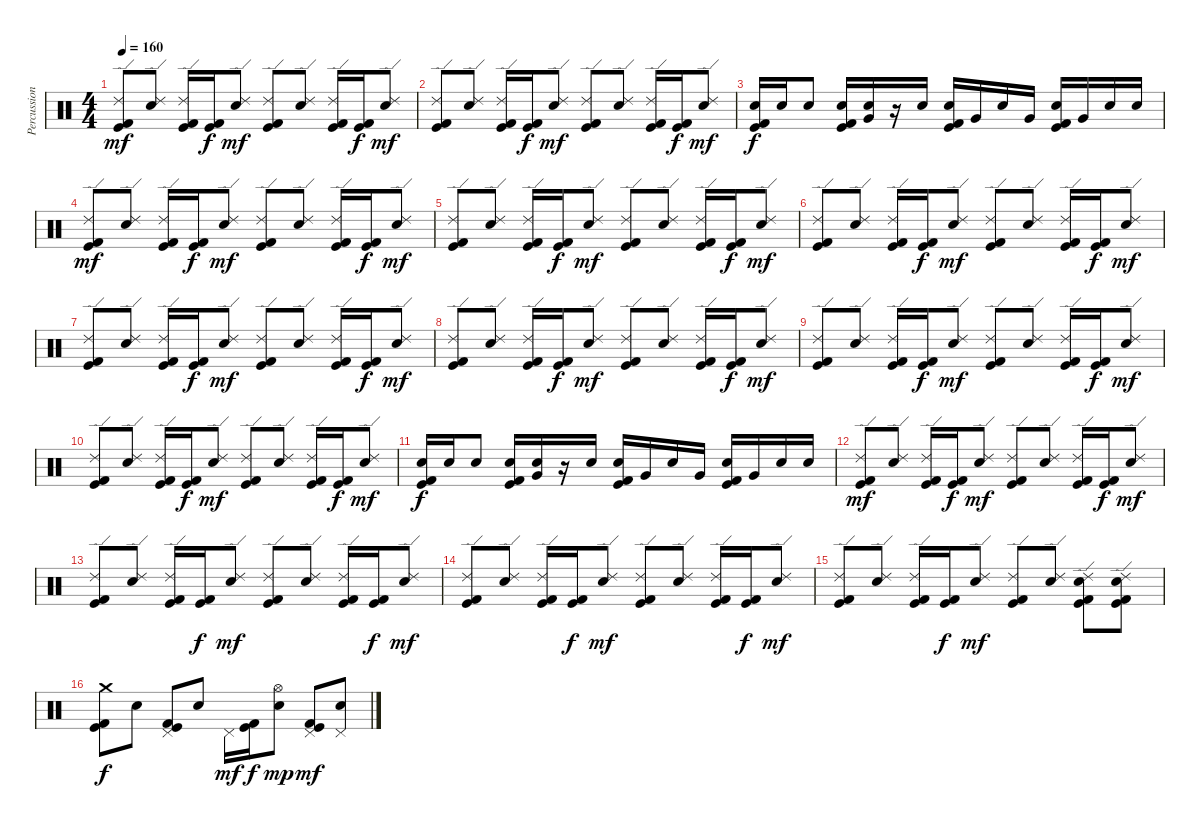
\track ("Percussions" "Percussion") {instrument percussion}
\staff {score}
\articulation defaults
\ts (4 4)
\tempo 160
\clef neutral
\ks c
("Ride (edge) 2" "Kick (hit)" "Kick (hit) 2").8{dy mf} ("Ride (edge) 2" "Electric Snare (hit)").8 ("Ride (edge) 2" "Kick (hit)" "Kick (hit) 2").16 ("Kick (hit)" "Kick (hit) 2").16{dy f} ("Ride (edge) 2" "Electric Snare (hit)").8{dy mf} ("Ride (edge) 2" "Kick (hit)" "Kick (hit) 2").8 ("Ride (edge) 2" "Electric Snare (hit)").8 ("Ride (edge) 2" "Kick (hit)" "Kick (hit) 2").16 ("Kick (hit)" "Kick (hit) 2").16{dy f} ("Ride (edge) 2" "Electric Snare (hit)").8{dy mf} |
("Ride (edge) 2" "Kick (hit)" "Kick (hit) 2").8 ("Ride (edge) 2" "Electric Snare (hit)").8 ("Ride (edge) 2" "Kick (hit)" "Kick (hit) 2").16 ("Kick (hit)" "Kick (hit) 2").16{dy f} ("Ride (edge) 2" "Electric Snare (hit)").8{dy mf} ("Ride (edge) 2" "Kick (hit)" "Kick (hit) 2").8 ("Ride (edge) 2" "Electric Snare (hit)").8 ("Ride (edge) 2" "Kick (hit)" "Kick (hit) 2").16 ("Kick (hit)" "Kick (hit) 2").16{dy f} ("Ride (edge) 2" "Electric Snare (hit)").8{dy mf} |
("Electric Snare (hit)" "Kick (hit)" "Kick (hit) 2").16{dy f} "Electric Snare (hit)".16 "Electric Snare (hit)".8 ("Electric Snare (hit)" "Kick (hit)" "Kick (hit) 2").16 ("Electric Snare (hit)" "Very Low Tom (hit)").16 r.16 "Electric Snare (hit)".16 ("Electric Snare (hit)" "Kick (hit)" "Kick (hit) 2").16 "Very Low Tom (hit)".16 "Electric Snare (hit)".16 "Very Low Tom (hit)".16 ("Electric Snare (hit)" "Kick (hit)" "Kick (hit) 2").16 "Very Low Tom (hit)".16 "Electric Snare (hit)".16 "Electric Snare (hit)".16 |
("Ride (edge) 2" "Kick (hit)" "Kick (hit) 2").8{dy mf} ("Ride (edge) 2" "Electric Snare (hit)").8 ("Ride (edge) 2" "Kick (hit)" "Kick (hit) 2").16 ("Kick (hit)" "Kick (hit) 2").16{dy f} ("Ride (edge) 2" "Electric Snare (hit)").8{dy mf} ("Ride (edge) 2" "Kick (hit)" "Kick (hit) 2").8 ("Ride (edge) 2" "Electric Snare (hit)").8 ("Ride (edge) 2" "Kick (hit)" "Kick (hit) 2").16 ("Kick (hit)" "Kick (hit) 2").16{dy f} ("Ride (edge) 2" "Electric Snare (hit)").8{dy mf} |
("Ride (edge) 2" "Kick (hit)" "Kick (hit) 2").8 ("Ride (edge) 2" "Electric Snare (hit)").8 ("Ride (edge) 2" "Kick (hit)" "Kick (hit) 2").16 ("Kick (hit)" "Kick (hit) 2").16{dy f} ("Ride (edge) 2" "Electric Snare (hit)").8{dy mf} ("Ride (edge) 2" "Kick (hit)" "Kick (hit) 2").8 ("Ride (edge) 2" "Electric Snare (hit)").8 ("Ride (edge) 2" "Kick (hit)" "Kick (hit) 2").16 ("Kick (hit)" "Kick (hit) 2").16{dy f} ("Ride (edge) 2" "Electric Snare (hit)").8{dy mf} |
("Ride (edge) 2" "Kick (hit)" "Kick (hit) 2").8 ("Ride (edge) 2" "Electric Snare (hit)").8 ("Ride (edge) 2" "Kick (hit)" "Kick (hit) 2").16 ("Kick (hit)" "Kick (hit) 2").16{dy f} ("Ride (edge) 2" "Electric Snare (hit)").8{dy mf} ("Ride (edge) 2" "Kick (hit)" "Kick (hit) 2").8 ("Ride (edge) 2" "Electric Snare (hit)").8 ("Ride (edge) 2" "Kick (hit)" "Kick (hit) 2").16 ("Kick (hit)" "Kick (hit) 2").16{dy f} ("Ride (edge) 2" "Electric Snare (hit)").8{dy mf} |
("Ride (edge) 2" "Kick (hit)" "Kick (hit) 2").8 ("Ride (edge) 2" "Electric Snare (hit)").8 ("Ride (edge) 2" "Kick (hit)" "Kick (hit) 2").16 ("Kick (hit)" "Kick (hit) 2").16{dy f} ("Ride (edge) 2" "Electric Snare (hit)").8{dy mf} ("Ride (edge) 2" "Kick (hit)" "Kick (hit) 2").8 ("Ride (edge) 2" "Electric Snare (hit)").8 ("Ride (edge) 2" "Kick (hit)" "Kick (hit) 2").16 ("Kick (hit)" "Kick (hit) 2").16{dy f} ("Ride (edge) 2" "Electric Snare (hit)").8{dy mf} |
("Ride (edge) 2" "Kick (hit)" "Kick (hit) 2").8 ("Ride (edge) 2" "Electric Snare (hit)").8 ("Ride (edge) 2" "Kick (hit)" "Kick (hit) 2").16 ("Kick (hit)" "Kick (hit) 2").16{dy f} ("Ride (edge) 2" "Electric Snare (hit)").8{dy mf} ("Ride (edge) 2" "Kick (hit)" "Kick (hit) 2").8 ("Ride (edge) 2" "Electric Snare (hit)").8 ("Ride (edge) 2" "Kick (hit)" "Kick (hit) 2").16 ("Kick (hit)" "Kick (hit) 2").16{dy f} ("Ride (edge) 2" "Electric Snare (hit)").8{dy mf} |
("Ride (edge) 2" "Kick (hit)" "Kick (hit) 2").8 ("Ride (edge) 2" "Electric Snare (hit)").8 ("Ride (edge) 2" "Kick (hit)" "Kick (hit) 2").16 ("Kick (hit)" "Kick (hit) 2").16{dy f} ("Ride (edge) 2" "Electric Snare (hit)").8{dy mf} ("Ride (edge) 2" "Kick (hit)" "Kick (hit) 2").8 ("Ride (edge) 2" "Electric Snare (hit)").8 ("Ride (edge) 2" "Kick (hit)" "Kick (hit) 2").16 ("Kick (hit)" "Kick (hit) 2").16{dy f} ("Ride (edge) 2" "Electric Snare (hit)").8{dy mf} |
("Ride (edge) 2" "Kick (hit)" "Kick (hit) 2").8 ("Ride (edge) 2" "Electric Snare (hit)").8 ("Ride (edge) 2" "Kick (hit)" "Kick (hit) 2").16 ("Kick (hit)" "Kick (hit) 2").16{dy f} ("Ride (edge) 2" "Electric Snare (hit)").8{dy mf} ("Ride (edge) 2" "Kick (hit)" "Kick (hit) 2").8 ("Ride (edge) 2" "Electric Snare (hit)").8 ("Ride (edge) 2" "Kick (hit)" "Kick (hit) 2").16 ("Kick (hit)" "Kick (hit) 2").16{dy f} ("Ride (edge) 2" "Electric Snare (hit)").8{dy mf} |
("Electric Snare (hit)" "Kick (hit)" "Kick (hit) 2").16{dy f} "Electric Snare (hit)".16 "Electric Snare (hit)".8 ("Electric Snare (hit)" "Kick (hit)" "Kick (hit) 2").16 ("Electric Snare (hit)" "Very Low Tom (hit)").16 r.16 "Electric Snare (hit)".16 ("Electric Snare (hit)" "Kick (hit)" "Kick (hit) 2").16 "Very Low Tom (hit)".16 "Electric Snare (hit)".16 "Very Low Tom (hit)".16 ("Electric Snare (hit)" "Kick (hit)" "Kick (hit) 2").16 "Very Low Tom (hit)".16 "Electric Snare (hit)".16 "Electric Snare (hit)".16 |
("Ride (edge) 2" "Kick (hit)" "Kick (hit) 2").8{dy mf} ("Ride (edge) 2" "Electric Snare (hit)").8 ("Ride (edge) 2" "Kick (hit)" "Kick (hit) 2").16 ("Kick (hit)" "Kick (hit) 2").16{dy f} ("Ride (edge) 2" "Electric Snare (hit)").8{dy mf} ("Ride (edge) 2" "Kick (hit)" "Kick (hit) 2").8 ("Ride (edge) 2" "Electric Snare (hit)").8 ("Ride (edge) 2" "Kick (hit)" "Kick (hit) 2").16 ("Kick (hit)" "Kick (hit) 2").16{dy f} ("Ride (edge) 2" "Electric Snare (hit)").8{dy mf} |
("Ride (edge) 2" "Kick (hit)" "Kick (hit) 2").8 ("Ride (edge) 2" "Electric Snare (hit)").8 ("Ride (edge) 2" "Kick (hit)" "Kick (hit) 2").16 ("Kick (hit)" "Kick (hit) 2").16{dy f} ("Ride (edge) 2" "Electric Snare (hit)").8{dy mf} ("Ride (edge) 2" "Kick (hit)" "Kick (hit) 2").8 ("Ride (edge) 2" "Electric Snare (hit)").8 ("Ride (edge) 2" "Kick (hit)" "Kick (hit) 2").16 ("Kick (hit)" "Kick (hit) 2").16{dy f} ("Ride (edge) 2" "Electric Snare (hit)").8{dy mf} |
("Ride (edge) 2" "Kick (hit)" "Kick (hit) 2").8 ("Ride (edge) 2" "Electric Snare (hit)").8 ("Ride (edge) 2" "Kick (hit)" "Kick (hit) 2").16 ("Kick (hit)" "Kick (hit) 2").16{dy f} ("Ride (edge) 2" "Electric Snare (hit)").8{dy mf} ("Ride (edge) 2" "Kick (hit)" "Kick (hit) 2").8 ("Ride (edge) 2" "Electric Snare (hit)").8 ("Ride (edge) 2" "Kick (hit)" "Kick (hit) 2").16 ("Kick (hit)" "Kick (hit) 2").16{dy f} ("Ride (edge) 2" "Electric Snare (hit)").8{dy mf} |
("Ride (edge) 2" "Kick (hit)" "Kick (hit) 2").8 ("Ride (edge) 2" "Electric Snare (hit)").8 ("Ride (edge) 2" "Kick (hit)" "Kick (hit) 2").16 ("Kick (hit)" "Kick (hit) 2").16{dy f} ("Ride (edge) 2" "Electric Snare (hit)").8{dy mf} ("Ride (edge) 2" "Kick (hit)" "Kick (hit) 2").8 ("Ride (edge) 2" "Electric Snare (hit)").8 ("Ride (edge) 2" "Electric Snare (hit)" "Kick (hit)" "Kick (hit) 2").8 ("Ride (edge) 2" "Electric Snare (hit)" "Kick (hit)" "Kick (hit) 2").8 |
("Crash medium (hit)" "Kick (hit)" "Kick (hit) 2").8{dy f} "Electric Snare (hit)".8 ("Pedal Hi-Hat (hit)" "Kick (hit)" "Kick (hit) 2").8 "Electric Snare (hit)".8 "Pedal Hi-Hat (hit)".16{dy mf} ("Kick (hit)" "Kick (hit) 2").16{dy f} ("Hi-Hat (open)" "Electric Snare (hit)").8{dy mp} ("Pedal Hi-Hat (hit)" "Kick (hit)" "Kick (hit) 2").8{dy mf} ("Pedal Hi-Hat (hit)" "Electric Snare (hit)").8
